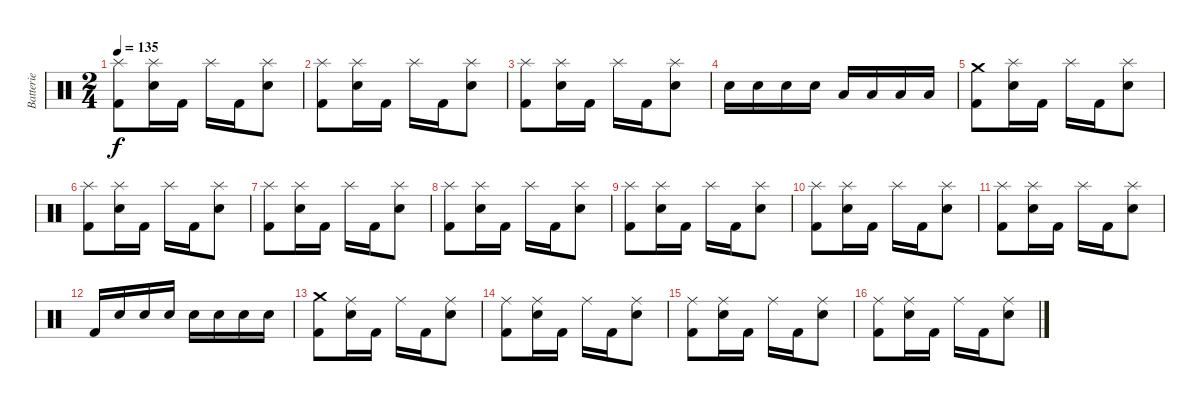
\track ("Batterie" "Batterie") {instrument percussion}
\staff {score}
\articulation defaults
\ts (2 4)
\tempo 135
\clef neutral
\ks c
("Splash (hit)" "Kick (hit) 2").8{dy f} ("Splash (hit)" "Electric Snare (hit)").16 "Kick (hit) 2".16 "Splash (hit)".16 "Kick (hit) 2".16 ("Splash (hit)" "Electric Snare (hit)").8 |
("Splash (hit)" "Kick (hit) 2").8 ("Splash (hit)" "Electric Snare (hit)").16 "Kick (hit) 2".16 "Splash (hit)".16 "Kick (hit) 2".16 ("Splash (hit)" "Electric Snare (hit)").8 |
("Splash (hit)" "Kick (hit) 2").8 ("Splash (hit)" "Electric Snare (hit)").16 "Kick (hit) 2".16 "Splash (hit)".16 "Kick (hit) 2".16 ("Splash (hit)" "Electric Snare (hit)").8 |
"Snare (hit) 2".16 "Snare (hit) 2".16 "Snare (hit) 2".16 "Snare (hit) 2".16 "Low Tom (hit)".16 "Low Tom (hit)".16 "Low Tom (hit)".16 "Low Tom (hit)".16 |
("Crash medium (hit)" "Kick (hit) 2").8 ("Splash (hit)" "Electric Snare (hit)").16 "Kick (hit) 2".16 "Splash (hit)".16 "Kick (hit) 2".16 ("Splash (hit)" "Electric Snare (hit)").8 |
("Splash (hit)" "Kick (hit) 2").8 ("Splash (hit)" "Electric Snare (hit)").16 "Kick (hit) 2".16 "Splash (hit)".16 "Kick (hit) 2".16 ("Splash (hit)" "Electric Snare (hit)").8 |
("Splash (hit)" "Kick (hit) 2").8 ("Splash (hit)" "Electric Snare (hit)").16 "Kick (hit) 2".16 "Splash (hit)".16 "Kick (hit) 2".16 ("Splash (hit)" "Electric Snare (hit)").8 |
("Splash (hit)" "Kick (hit) 2").8 ("Splash (hit)" "Electric Snare (hit)").16 "Kick (hit) 2".16 "Splash (hit)".16 "Kick (hit) 2".16 ("Splash (hit)" "Electric Snare (hit)").8 |
("Splash (hit)" "Kick (hit) 2").8 ("Splash (hit)" "Electric Snare (hit)").16 "Kick (hit) 2".16 "Splash (hit)".16 "Kick (hit) 2".16 ("Splash (hit)" "Electric Snare (hit)").8 |
("Splash (hit)" "Kick (hit) 2").8 ("Splash (hit)" "Electric Snare (hit)").16 "Kick (hit) 2".16 "Splash (hit)".16 "Kick (hit) 2".16 ("Splash (hit)" "Electric Snare (hit)").8 |
("Splash (hit)" "Kick (hit) 2").8 ("Splash (hit)" "Electric Snare (hit)").16 "Kick (hit) 2".16 "Splash (hit)".16 "Kick (hit) 2".16 ("Splash (hit)" "Electric Snare (hit)").8 |
"Kick (hit) 2".16 "Snare (hit) 2".16 "Snare (hit) 2".16 "Snare (hit) 2".16 "Snare (hit) 2".16 "Snare (hit) 2".16 "Snare (hit) 2".16 "Snare (hit) 2".16 |
("Crash medium (hit)" "Kick (hit) 2").8 ("Ride (middle)" "Electric Snare (hit)").16 "Kick (hit) 2".16 "Ride (middle)".16 "Kick (hit) 2".16 ("Ride (middle)" "Electric Snare (hit)").8 |
("Ride (middle)" "Kick (hit) 2").8 ("Ride (middle)" "Electric Snare (hit)").16 "Kick (hit) 2".16 "Ride (middle)".16 "Kick (hit) 2".16 ("Ride (middle)" "Electric Snare (hit)").8 |
("Ride (middle)" "Kick (hit) 2").8 ("Ride (middle)" "Electric Snare (hit)").16 "Kick (hit) 2".16 "Ride (middle)".16 "Kick (hit) 2".16 ("Ride (middle)" "Electric Snare (hit)").8 |
("Ride (middle)" "Kick (hit) 2").8 ("Ride (middle)" "Electric Snare (hit)").16 "Kick (hit) 2".16 "Ride (middle)".16 "Kick (hit) 2".16 ("Ride (middle)" "Electric Snare (hit)").8
